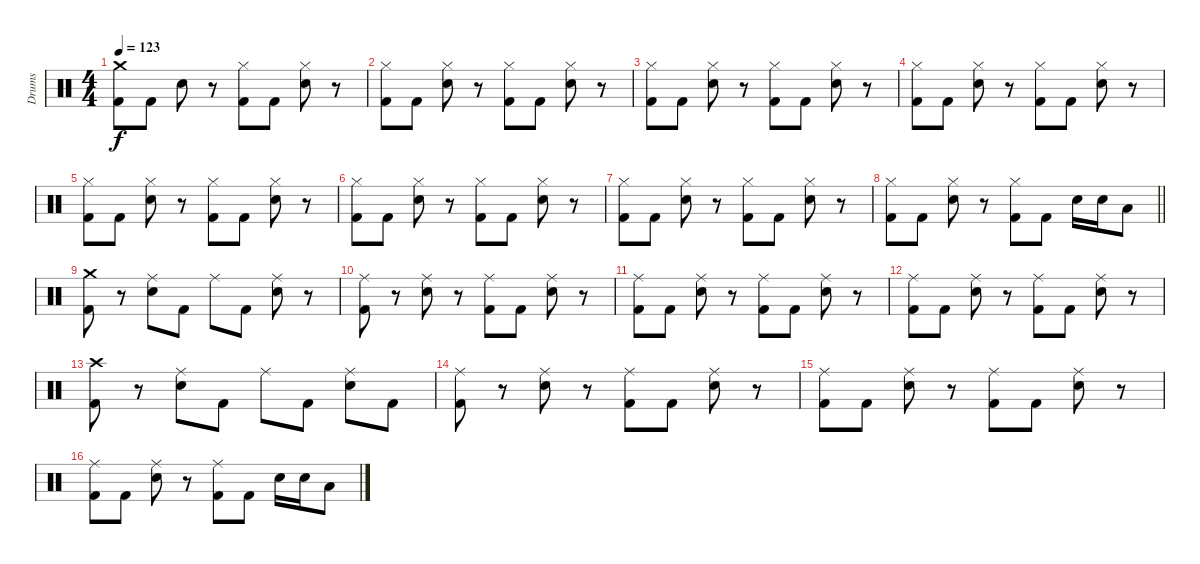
\track ("Drums" "Drums") {instrument percussion}
\staff {score}
\articulation defaults
\ts (4 4)
\tempo 123
\clef neutral
\ks c
("Crash medium (hit)"{t} "Kick (hit) 2"{t}).8{dy f} "Kick (hit) 2".8 "Electric Snare (hit)".8 r.8 ("Hi-Hat (closed)" "Kick (hit) 2").8 "Kick (hit) 2".8 ("Hi-Hat (closed)" "Electric Snare (hit)").8 r.8 |
("Hi-Hat (closed)" "Kick (hit) 2").8 "Kick (hit) 2".8 ("Hi-Hat (closed)" "Electric Snare (hit)").8 r.8 ("Hi-Hat (closed)" "Kick (hit) 2").8 "Kick (hit) 2".8 ("Hi-Hat (closed)" "Electric Snare (hit)").8 r.8 |
("Hi-Hat (closed)" "Kick (hit) 2").8 "Kick (hit) 2".8 ("Hi-Hat (closed)" "Electric Snare (hit)").8 r.8 ("Hi-Hat (closed)" "Kick (hit) 2").8 "Kick (hit) 2".8 ("Hi-Hat (closed)" "Electric Snare (hit)").8 r.8 |
("Hi-Hat (closed)" "Kick (hit) 2").8 "Kick (hit) 2".8 ("Hi-Hat (closed)" "Electric Snare (hit)").8 r.8 ("Hi-Hat (closed)" "Kick (hit) 2").8 "Kick (hit) 2".8 ("Hi-Hat (closed)" "Electric Snare (hit)").8 r.8 |
("Hi-Hat (closed)" "Kick (hit) 2").8 "Kick (hit) 2".8 ("Hi-Hat (closed)" "Electric Snare (hit)").8 r.8 ("Hi-Hat (closed)" "Kick (hit) 2").8 "Kick (hit) 2".8 ("Hi-Hat (closed)" "Electric Snare (hit)").8 r.8 |
("Hi-Hat (closed)" "Kick (hit) 2").8 "Kick (hit) 2".8 ("Hi-Hat (closed)" "Electric Snare (hit)").8 r.8 ("Hi-Hat (closed)" "Kick (hit) 2").8 "Kick (hit) 2".8 ("Hi-Hat (closed)" "Electric Snare (hit)").8 r.8 |
("Hi-Hat (closed)" "Kick (hit) 2").8 "Kick (hit) 2".8 ("Hi-Hat (closed)" "Electric Snare (hit)").8 r.8 ("Hi-Hat (closed)" "Kick (hit) 2").8 "Kick (hit) 2".8 ("Hi-Hat (closed)" "Electric Snare (hit)").8 r.8 |
\barLineRight lightlight
("Hi-Hat (closed)" "Kick (hit) 2").8 "Kick (hit) 2".8 ("Hi-Hat (closed)" "Electric Snare (hit)").8 r.8 ("Hi-Hat (closed)" "Kick (hit) 2").8 "Kick (hit) 2".8 "Electric Snare (hit)".16 "Electric Snare (hit)".16 "Low Tom (hit)".8 |
("Crash medium (hit)" "Kick (hit) 2").8 r.8 ("Ride (middle)" "Electric Snare (hit)").8 "Kick (hit) 2".8 "Ride (middle)".8 "Kick (hit) 2".8 ("Ride (middle)" "Electric Snare (hit)").8 r.8 |
("Ride (middle)" "Kick (hit) 2").8 r.8 ("Ride (middle)" "Electric Snare (hit)").8 r.8 ("Ride (middle)" "Kick (hit) 2").8 "Kick (hit) 2".8 ("Ride (middle)" "Electric Snare (hit)").8 r.8 |
("Ride (middle)" "Kick (hit) 2").8 "Kick (hit) 2".8 ("Ride (middle)" "Electric Snare (hit)").8 r.8 ("Ride (middle)" "Kick (hit) 2").8 "Kick (hit) 2".8 ("Ride (middle)" "Electric Snare (hit)").8 r.8 |
("Ride (middle)" "Kick (hit) 2").8 "Kick (hit) 2".8 ("Ride (middle)" "Electric Snare (hit)").8 r.8 ("Ride (middle)" "Kick (hit) 2").8 "Kick (hit) 2".8 ("Ride (middle)" "Electric Snare (hit)").8 r.8 |
("Crash high (hit)" "Kick (hit) 2").8 r.8 ("Ride (middle)" "Electric Snare (hit)").8 "Kick (hit) 2".8 "Ride (middle)".8 "Kick (hit) 2".8 ("Ride (middle)" "Electric Snare (hit)").8 "Kick (hit) 2".8 |
("Ride (middle)" "Kick (hit) 2").8 r.8 ("Ride (middle)" "Electric Snare (hit)").8 r.8 ("Ride (middle)" "Kick (hit) 2").8 "Kick (hit) 2".8 ("Ride (middle)" "Electric Snare (hit)").8 r.8 |
("Ride (middle)" "Kick (hit) 2").8 "Kick (hit) 2".8 ("Ride (middle)" "Electric Snare (hit)").8 r.8 ("Ride (middle)" "Kick (hit) 2").8 "Kick (hit) 2".8 ("Ride (middle)" "Electric Snare (hit)").8 r.8 |
("Ride (middle)" "Kick (hit) 2").8 "Kick (hit) 2".8 ("Ride (middle)" "Electric Snare (hit)").8 r.8 ("Ride (middle)" "Kick (hit) 2").8 "Kick (hit) 2".8 "Electric Snare (hit)".16 "Electric Snare (hit)".16 "Low Tom (hit)".8
